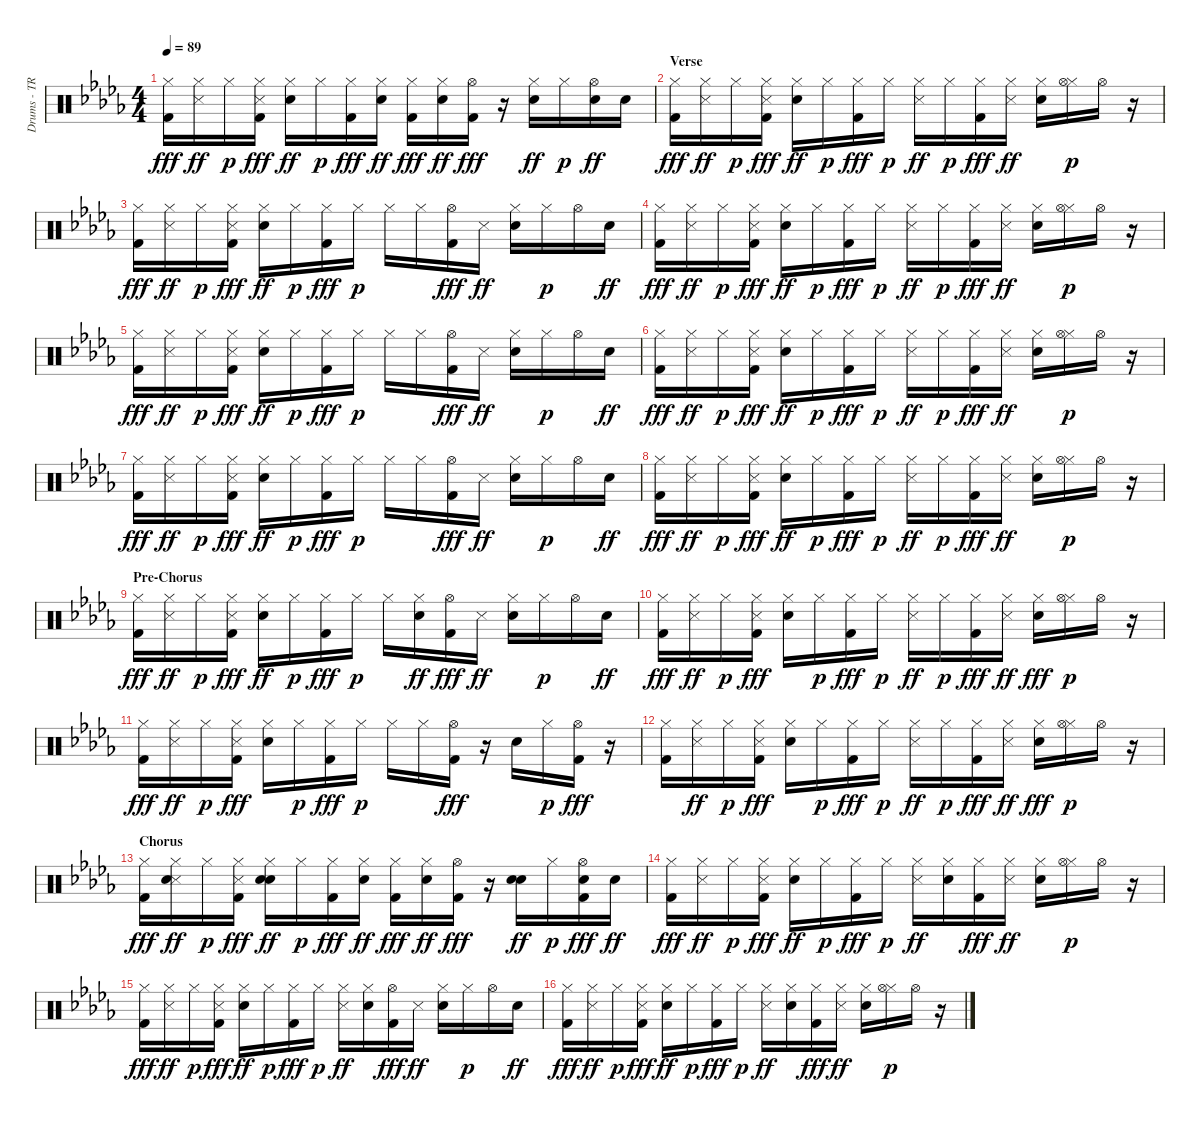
\track ("Drums - TR808" "Drums - TR") {instrument percussion}
\staff {score}
\articulation defaults
\ts (4 4)
\tempo 89
\clef neutral
\ks bbminor
("Kick (hit) 2" "Hi-Hat (closed)").16{dy fff} ("Snare (side stick) 3" "Hi-Hat (closed)").16{dy ff} "Hi-Hat (closed)".16{dy p} ("Kick (hit) 2" "Snare (side stick) 3" "Hi-Hat (closed)").16{dy fff} ("Snare (hit) 2" "Hi-Hat (closed)").16{dy ff} "Hi-Hat (closed)".16{dy p} ("Kick (hit) 2" "Hi-Hat (closed)").16{dy fff} ("Snare (hit) 2" "Hi-Hat (closed)").16{dy ff} ("Kick (hit) 2" "Hi-Hat (closed)").16{dy fff} ("Snare (hit) 2" "Hi-Hat (closed)").16{dy ff} ("Kick (hit) 2" "Hi-Hat (open)").16{dy fff} r.16 ("Snare (hit) 2" "Hi-Hat (closed)").16{dy ff} "Hi-Hat (closed)".16{dy p} ("Snare (hit) 2" "Hi-Hat (open)").16{dy ff} "Snare (hit) 2".16 |
\section ("" "Verse")
("Kick (hit) 2" "Hi-Hat (closed)").16{dy fff} ("Snare (side stick) 3" "Hi-Hat (closed)").16{dy ff} "Hi-Hat (closed)".16{dy p} ("Kick (hit) 2" "Snare (side stick) 3" "Hi-Hat (closed)").16{dy fff} ("Snare (hit) 2" "Hi-Hat (closed)").16{dy ff} "Hi-Hat (closed)".16{dy p} ("Kick (hit) 2" "Hi-Hat (closed)").16{dy fff} "Hi-Hat (closed)".16{dy p} ("Snare (side stick) 3" "Hi-Hat (closed)").16{dy ff} "Hi-Hat (closed)".16{dy p} ("Kick (hit) 2" "Hi-Hat (closed)").16{dy fff} ("Snare (side stick) 3" "Hi-Hat (closed)").16{dy ff} ("Snare (hit) 2" "Hi-Hat (closed)").16 ("Hi-Hat (closed)" "Hi-Hat (open)").16{dy p} "Hi-Hat (open)".16 r.16 |
("Kick (hit) 2" "Hi-Hat (closed)").16{dy fff} ("Snare (side stick) 3" "Hi-Hat (closed)").16{dy ff} "Hi-Hat (closed)".16{dy p} ("Kick (hit) 2" "Snare (side stick) 3" "Hi-Hat (closed)").16{dy fff} ("Snare (hit) 2" "Hi-Hat (closed)").16{dy ff} "Hi-Hat (closed)".16{dy p} ("Kick (hit) 2" "Hi-Hat (closed)").16{dy fff} "Hi-Hat (closed)".16{dy p} "Hi-Hat (closed)".16 "Hi-Hat (closed)".16 ("Kick (hit) 2" "Hi-Hat (open)").16{dy fff} "Snare (side stick) 3".16{dy ff} ("Snare (hit) 2" "Hi-Hat (closed)").16 "Hi-Hat (closed)".16{dy p} "Hi-Hat (open)".16 "Snare (hit) 2".16{dy ff} |
("Kick (hit) 2" "Hi-Hat (closed)").16{dy fff} ("Snare (side stick) 3" "Hi-Hat (closed)").16{dy ff} "Hi-Hat (closed)".16{dy p} ("Kick (hit) 2" "Snare (side stick) 3" "Hi-Hat (closed)").16{dy fff} ("Snare (hit) 2" "Hi-Hat (closed)").16{dy ff} "Hi-Hat (closed)".16{dy p} ("Kick (hit) 2" "Hi-Hat (closed)").16{dy fff} "Hi-Hat (closed)".16{dy p} ("Snare (side stick) 3" "Hi-Hat (closed)").16{dy ff} "Hi-Hat (closed)".16{dy p} ("Kick (hit) 2" "Hi-Hat (closed)").16{dy fff} ("Snare (side stick) 3" "Hi-Hat (closed)").16{dy ff} ("Snare (hit) 2" "Hi-Hat (closed)").16 ("Hi-Hat (closed)" "Hi-Hat (open)").16{dy p} "Hi-Hat (open)".16 r.16 |
("Kick (hit) 2" "Hi-Hat (closed)").16{dy fff} ("Snare (side stick) 3" "Hi-Hat (closed)").16{dy ff} "Hi-Hat (closed)".16{dy p} ("Kick (hit) 2" "Snare (side stick) 3" "Hi-Hat (closed)").16{dy fff} ("Snare (hit) 2" "Hi-Hat (closed)").16{dy ff} "Hi-Hat (closed)".16{dy p} ("Kick (hit) 2" "Hi-Hat (closed)").16{dy fff} "Hi-Hat (closed)".16{dy p} "Hi-Hat (closed)".16 "Hi-Hat (closed)".16 ("Kick (hit) 2" "Hi-Hat (open)").16{dy fff} "Snare (side stick) 3".16{dy ff} ("Snare (hit) 2" "Hi-Hat (closed)").16 "Hi-Hat (closed)".16{dy p} "Hi-Hat (open)".16 "Snare (hit) 2".16{dy ff} |
("Kick (hit) 2" "Hi-Hat (closed)").16{dy fff} ("Snare (side stick) 3" "Hi-Hat (closed)").16{dy ff} "Hi-Hat (closed)".16{dy p} ("Kick (hit) 2" "Snare (side stick) 3" "Hi-Hat (closed)").16{dy fff} ("Snare (hit) 2" "Hi-Hat (closed)").16{dy ff} "Hi-Hat (closed)".16{dy p} ("Kick (hit) 2" "Hi-Hat (closed)").16{dy fff} "Hi-Hat (closed)".16{dy p} ("Snare (side stick) 3" "Hi-Hat (closed)").16{dy ff} "Hi-Hat (closed)".16{dy p} ("Kick (hit) 2" "Hi-Hat (closed)").16{dy fff} ("Snare (side stick) 3" "Hi-Hat (closed)").16{dy ff} ("Snare (hit) 2" "Hi-Hat (closed)").16 ("Hi-Hat (closed)" "Hi-Hat (open)").16{dy p} "Hi-Hat (open)".16 r.16 |
("Kick (hit) 2" "Hi-Hat (closed)").16{dy fff} ("Snare (side stick) 3" "Hi-Hat (closed)").16{dy ff} "Hi-Hat (closed)".16{dy p} ("Kick (hit) 2" "Snare (side stick) 3" "Hi-Hat (closed)").16{dy fff} ("Snare (hit) 2" "Hi-Hat (closed)").16{dy ff} "Hi-Hat (closed)".16{dy p} ("Kick (hit) 2" "Hi-Hat (closed)").16{dy fff} "Hi-Hat (closed)".16{dy p} "Hi-Hat (closed)".16 "Hi-Hat (closed)".16 ("Kick (hit) 2" "Hi-Hat (open)").16{dy fff} "Snare (side stick) 3".16{dy ff} ("Snare (hit) 2" "Hi-Hat (closed)").16 "Hi-Hat (closed)".16{dy p} "Hi-Hat (open)".16 "Snare (hit) 2".16{dy ff} |
("Kick (hit) 2" "Hi-Hat (closed)").16{dy fff} ("Snare (side stick) 3" "Hi-Hat (closed)").16{dy ff} "Hi-Hat (closed)".16{dy p} ("Kick (hit) 2" "Snare (side stick) 3" "Hi-Hat (closed)").16{dy fff} ("Snare (hit) 2" "Hi-Hat (closed)").16{dy ff} "Hi-Hat (closed)".16{dy p} ("Kick (hit) 2" "Hi-Hat (closed)").16{dy fff} "Hi-Hat (closed)".16{dy p} ("Snare (side stick) 3" "Hi-Hat (closed)").16{dy ff} "Hi-Hat (closed)".16{dy p} ("Kick (hit) 2" "Hi-Hat (closed)").16{dy fff} ("Snare (side stick) 3" "Hi-Hat (closed)").16{dy ff} ("Snare (hit) 2" "Hi-Hat (closed)").16 ("Hi-Hat (closed)" "Hi-Hat (open)").16{dy p} "Hi-Hat (open)".16 r.16 |
\section ("" "Pre-Chorus")
("Kick (hit) 2" "Hi-Hat (closed)").16{dy fff} ("Snare (side stick) 3" "Hi-Hat (closed)").16{dy ff} "Hi-Hat (closed)".16{dy p} ("Kick (hit) 2" "Snare (side stick) 3" "Hi-Hat (closed)").16{dy fff} ("Snare (hit) 2" "Hi-Hat (closed)").16{dy ff} "Hi-Hat (closed)".16{dy p} ("Kick (hit) 2" "Hi-Hat (closed)").16{dy fff} "Hi-Hat (closed)".16{dy p} "Hi-Hat (closed)".16 ("Snare (hit) 2" "Hi-Hat (closed)").16{dy ff} ("Kick (hit) 2" "Hi-Hat (open)").16{dy fff} "Snare (side stick) 3".16{dy ff} ("Snare (hit) 2" "Hi-Hat (closed)").16 "Hi-Hat (closed)".16{dy p} "Hi-Hat (open)".16 "Snare (hit) 2".16{dy ff} |
("Kick (hit) 2" "Hi-Hat (closed)").16{dy fff} ("Snare (side stick) 3" "Hi-Hat (closed)").16{dy ff} "Hi-Hat (closed)".16{dy p} ("Kick (hit) 2" "Snare (side stick) 3" "Hi-Hat (closed)").16{dy fff} ("Hand Clap (hit)" "Hi-Hat (closed)").16 "Hi-Hat (closed)".16{dy p} ("Kick (hit) 2" "Hi-Hat (closed)").16{dy fff} "Hi-Hat (closed)".16{dy p} ("Snare (side stick) 3" "Hi-Hat (closed)").16{dy ff} "Hi-Hat (closed)".16{dy p} ("Kick (hit) 2" "Hi-Hat (closed)").16{dy fff} ("Snare (side stick) 3" "Hi-Hat (closed)").16{dy ff} ("Hand Clap (hit)" "Hi-Hat (closed)").16{dy fff} ("Hi-Hat (closed)" "Hi-Hat (open)").16{dy p} "Hi-Hat (open)".16 r.16 |
("Kick (hit) 2" "Hi-Hat (closed)").16{dy fff} ("Snare (side stick) 3" "Hi-Hat (closed)").16{dy ff} "Hi-Hat (closed)".16{dy p} ("Kick (hit) 2" "Snare (side stick) 3" "Hi-Hat (closed)").16{dy fff} ("Hand Clap (hit)" "Hi-Hat (closed)").16 "Hi-Hat (closed)".16{dy p} ("Kick (hit) 2" "Hi-Hat (closed)").16{dy fff} "Hi-Hat (closed)".16{dy p} "Hi-Hat (closed)".16 "Hi-Hat (closed)".16 ("Kick (hit) 2" "Hi-Hat (open)").16{dy fff} r.16 "Hand Clap (hit)".16 "Hi-Hat (closed)".16{dy p} ("Kick (hit) 2" "Hi-Hat (open)").16{dy fff} r.16 |
("Kick (hit) 2" "Hi-Hat (closed)").16 ("Snare (side stick) 3" "Hi-Hat (closed)").16{dy ff} "Hi-Hat (closed)".16{dy p} ("Kick (hit) 2" "Snare (side stick) 3" "Hi-Hat (closed)").16{dy fff} ("Hand Clap (hit)" "Hi-Hat (closed)").16 "Hi-Hat (closed)".16{dy p} ("Kick (hit) 2" "Hi-Hat (closed)").16{dy fff} "Hi-Hat (closed)".16{dy p} ("Snare (side stick) 3" "Hi-Hat (closed)").16{dy ff} "Hi-Hat (closed)".16{dy p} ("Kick (hit) 2" "Hi-Hat (closed)").16{dy fff} ("Snare (side stick) 3" "Hi-Hat (closed)").16{dy ff} ("Hand Clap (hit)" "Hi-Hat (closed)").16{dy fff} ("Hi-Hat (closed)" "Hi-Hat (open)").16{dy p} "Hi-Hat (open)".16 r.16 |
\section ("" "Chorus")
("Kick (hit) 2" "Hi-Hat (closed)").16{dy fff} ("Snare (side stick) 3" "Snare (hit) 2" "Hi-Hat (closed)").16{dy ff} "Hi-Hat (closed)".16{dy p} ("Kick (hit) 2" "Snare (side stick) 3" "Hi-Hat (closed)").16{dy fff} ("Snare (hit) 2" "Hand Clap (hit)" "Hi-Hat (closed)").16{dy ff} "Hi-Hat (closed)".16{dy p} ("Kick (hit) 2" "Hi-Hat (closed)").16{dy fff} ("Snare (hit) 2" "Hi-Hat (closed)").16{dy ff} ("Kick (hit) 2" "Hi-Hat (closed)").16{dy fff} ("Snare (hit) 2" "Hi-Hat (closed)").16{dy ff} ("Kick (hit) 2" "Hi-Hat (open)").16{dy fff} r.16 ("Snare (hit) 2" "Hand Clap (hit)").16{dy ff} "Hi-Hat (closed)".16{dy p} ("Kick (hit) 2" "Snare (hit) 2" "Hi-Hat (open)").16{dy fff} "Snare (hit) 2".16{dy ff} |
("Kick (hit) 2" "Hi-Hat (closed)").16{dy fff} ("Snare (side stick) 3" "Hi-Hat (closed)").16{dy ff} "Hi-Hat (closed)".16{dy p} ("Kick (hit) 2" "Snare (side stick) 3" "Hi-Hat (closed)").16{dy fff} ("Snare (hit) 2" "Hi-Hat (closed)").16{dy ff} "Hi-Hat (closed)".16{dy p} ("Kick (hit) 2" "Hi-Hat (closed)").16{dy fff} "Hi-Hat (closed)".16{dy p} ("Snare (side stick) 3" "Hi-Hat (closed)").16{dy ff} ("Snare (hit) 2" "Hi-Hat (closed)").16 ("Kick (hit) 2" "Hi-Hat (closed)").16{dy fff} ("Snare (side stick) 3" "Hi-Hat (closed)").16{dy ff} ("Snare (hit) 2" "Hi-Hat (closed)").16 ("Hi-Hat (closed)" "Hi-Hat (open)").16{dy p} "Hi-Hat (open)".16 r.16 |
("Kick (hit) 2" "Hi-Hat (closed)").16{dy fff} ("Snare (side stick) 3" "Hi-Hat (closed)").16{dy ff} "Hi-Hat (closed)".16{dy p} ("Kick (hit) 2" "Snare (side stick) 3" "Hi-Hat (closed)").16{dy fff} ("Snare (hit) 2" "Hi-Hat (closed)").16{dy ff} "Hi-Hat (closed)".16{dy p} ("Kick (hit) 2" "Hi-Hat (closed)").16{dy fff} "Hi-Hat (closed)".16{dy p} ("Snare (side stick) 3" "Hi-Hat (closed)").16{dy ff} ("Snare (hit) 2" "Hi-Hat (closed)").16 ("Kick (hit) 2" "Hi-Hat (open)").16{dy fff} "Snare (side stick) 3".16{dy ff} ("Snare (hit) 2" "Hi-Hat (closed)").16 "Hi-Hat (closed)".16{dy p} "Hi-Hat (open)".16 "Snare (hit) 2".16{dy ff} |
("Kick (hit) 2" "Hi-Hat (closed)").16{dy fff} ("Snare (side stick) 3" "Hi-Hat (closed)").16{dy ff} "Hi-Hat (closed)".16{dy p} ("Kick (hit) 2" "Snare (side stick) 3" "Hi-Hat (closed)").16{dy fff} ("Snare (hit) 2" "Hi-Hat (closed)").16{dy ff} "Hi-Hat (closed)".16{dy p} ("Kick (hit) 2" "Hi-Hat (closed)").16{dy fff} "Hi-Hat (closed)".16{dy p} ("Snare (side stick) 3" "Hi-Hat (closed)").16{dy ff} ("Snare (hit) 2" "Hi-Hat (closed)").16 ("Kick (hit) 2" "Hi-Hat (closed)").16{dy fff} ("Snare (side stick) 3" "Hi-Hat (closed)").16{dy ff} ("Snare (hit) 2" "Hi-Hat (closed)").16 ("Hi-Hat (closed)" "Hi-Hat (open)").16{dy p} "Hi-Hat (open)".16 r.16
